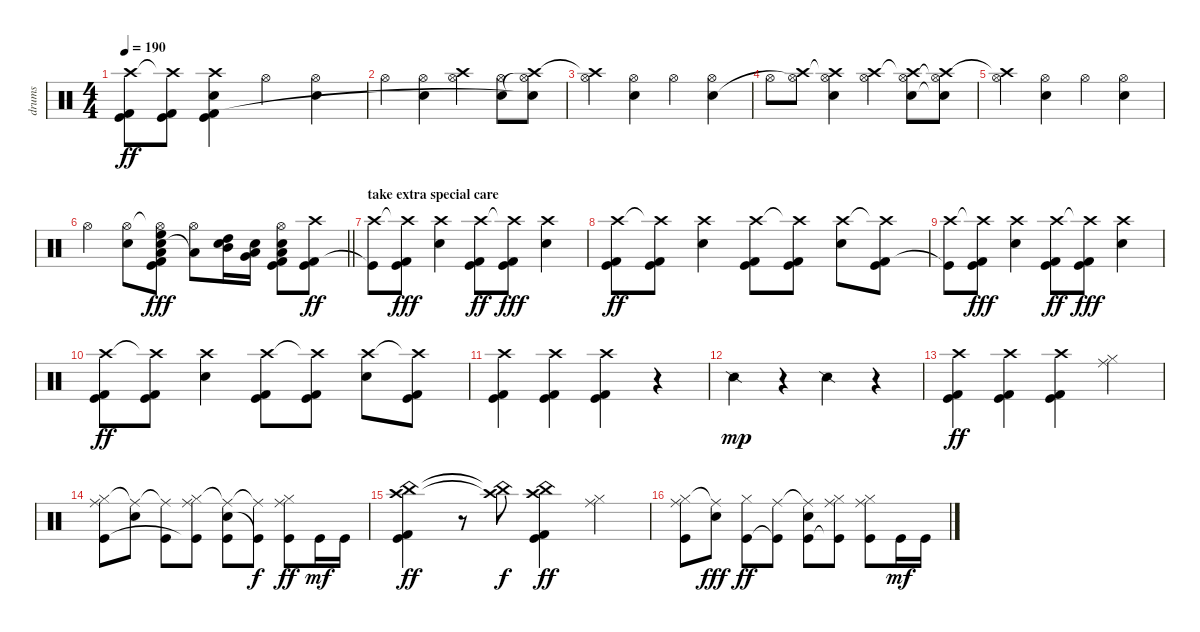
\track ("drums" "drums") {instrument percussion}
\staff {score}
\articulation defaults
\ts (4 4)
\tempo 190
\clef neutral
\ks c
("Crash high (hit)"{t} "Kick (hit) 2" "Kick (hit)").8{dy ff} ("Crash high (hit)"{t} "Kick (hit) 2" "Kick (hit)").8 ("Crash high (hit)" "Electric Snare (hit)" "Kick (hit) 2" "Kick (hit)").4 "Hi-Hat (open)".4 ("Hi-Hat (open)" "Electric Snare (hit)").4 |
"Hi-Hat (open)".4 ("Hi-Hat (open)" "Electric Snare (hit)").4 ("Crash high (hit)" "Hi-Hat (open)").4 ("Hi-Hat (open)" "Electric Snare (hit)").8 ("Crash high (hit)" "Hi-Hat (open)"{t} "Electric Snare (hit)"{t}).8 |
("Crash high (hit)"{t} "Hi-Hat (open)").4 ("Hi-Hat (open)" "Electric Snare (hit)").4 "Hi-Hat (open)".4 ("Hi-Hat (open)" "Electric Snare (hit)").4 |
"Hi-Hat (open)".8 ("Crash high (hit)" "Hi-Hat (open)"{t}).8 ("Crash high (hit)"{t} "Hi-Hat (open)" "Electric Snare (hit)").4 ("Crash high (hit)" "Hi-Hat (open)").4 ("Crash high (hit)"{t} "Hi-Hat (open)" "Electric Snare (hit)").8 ("Crash high (hit)" "Hi-Hat (open)"{t} "Electric Snare (hit)"{t}).8 |
("Crash high (hit)"{t} "Hi-Hat (open)").4 ("Hi-Hat (open)" "Electric Snare (hit)").4 "Hi-Hat (open)".4 ("Hi-Hat (open)" "Electric Snare (hit)").4 |
\barLineRight lightlight "Hi-Hat (open)".4
("Hi-Hat (open)" "Electric Snare (hit)").8 ("Hi-Hat (open)"{t} "Electric Snare (hit)" "Kick (hit) 2" "High Floor Tom (hit)" "Low Tom (hit)" "Kick (hit)").8{dy fff} ("Hi-Hat (open)" "Low Tom (hit)"{t}).8 ("Electric Snare (hit)" "High Tom (hit)" "Mid Tom (hit)").16 ("Electric Snare (hit)" "Very Low Tom (hit)" "Low Floor Tom (hit)").16 ("Electric Snare (hit)" "Hi-Hat (open)" "Kick (hit) 2" "Low Floor Tom (hit)" "Kick (hit)").8 ("Crash high (hit)" "Kick (hit) 2" "Kick (hit)").8{dy ff} |
\section ("" "take extra special care")
("Crash high (hit)" "Kick (hit)"{t}).8 ("Crash high (hit)"{t} "Kick (hit) 2" "Kick (hit)").8{dy fff} ("Crash high (hit)" "Electric Snare (hit)").4 ("Crash high (hit)" "Kick (hit) 2" "Kick (hit)").8{dy ff} ("Crash high (hit)"{t} "Kick (hit) 2" "Kick (hit)").8{dy fff} ("Crash high (hit)" "Electric Snare (hit)").4 |
("Crash high (hit)" "Kick (hit) 2" "Kick (hit)").8{dy ff} ("Crash high (hit)"{t} "Kick (hit) 2" "Kick (hit)").8 ("Crash high (hit)" "Electric Snare (hit)").4 ("Crash high (hit)" "Kick (hit) 2" "Kick (hit)").8 ("Crash high (hit)"{t} "Kick (hit) 2" "Kick (hit)").8 ("Crash high (hit)" "Electric Snare (hit)").8 ("Crash high (hit)"{t} "Kick (hit) 2" "Kick (hit)").8 |
("Crash high (hit)" "Kick (hit)"{t}).8 ("Crash high (hit)"{t} "Kick (hit) 2" "Kick (hit)").8{dy fff} ("Crash high (hit)" "Electric Snare (hit)").4 ("Crash high (hit)" "Kick (hit) 2" "Kick (hit)").8{dy ff} ("Crash high (hit)"{t} "Kick (hit) 2" "Kick (hit)").8{dy fff} ("Crash high (hit)" "Electric Snare (hit)").4 |
("Crash high (hit)" "Kick (hit) 2" "Kick (hit)").8{dy ff} ("Crash high (hit)"{t} "Kick (hit) 2" "Kick (hit)").8 ("Crash high (hit)" "Electric Snare (hit)").4 ("Crash high (hit)" "Kick (hit) 2" "Kick (hit)").8 ("Crash high (hit)"{t} "Kick (hit) 2" "Kick (hit)").8 ("Crash high (hit)" "Electric Snare (hit)").8 ("Crash high (hit)"{t} "Kick (hit) 2" "Kick (hit)").8 |
("Crash high (hit)" "Kick (hit) 2" "Kick (hit)").4 ("Crash high (hit)" "Kick (hit) 2" "Kick (hit)").4 ("Crash high (hit)" "Kick (hit) 2" "Kick (hit)").4 r.4 |
"Snare (side stick) 2".4{dy mp} r.4 "Snare (side stick) 2".4 r.4 |
("Crash high (hit)" "Kick (hit)" "Kick (hit) 2").4{dy ff} ("Crash high (hit)" "Kick (hit)" "Kick (hit) 2").4 ("Crash high (hit)" "Kick (hit)" "Kick (hit) 2").4 ("Hi-Hat (closed)" "Ride (middle)").4 |
("Hi-Hat (closed)" "Ride (middle)" "Kick (hit)").8 ("Ride (middle)"{t} "Electric Snare (hit)").8 ("Ride (middle)"{t} "Kick (hit)").8 ("Hi-Hat (closed)" "Ride (middle)" "Kick (hit)"{t}).8 ("Ride (middle)"{t} "Electric Snare (hit)" "Kick (hit)").8 ("Ride (middle)"{t} "Kick (hit)"{t}).8{dy f} ("Hi-Hat (closed)" "Ride (middle)" "Kick (hit)").8{dy ff} "Kick (hit)".16{dy mf} "Kick (hit)".16 |
("China (hit)" "Crash high (hit)" "Kick (hit) 2" "Kick (hit)").4{dy ff} r.8 ("China (hit)"{t} "Crash high (hit)"{t}).8{dy f} ("China (hit)" "Crash high (hit)" "Kick (hit) 2" "Kick (hit)").4{dy ff} ("Ride (middle)" "Hi-Hat (closed)").4 |
("Hi-Hat (closed)" "Ride (middle)" "Kick (hit)").8 ("Ride (middle)"{t} "Electric Snare (hit)").8{dy fff} ("Hi-Hat (closed)" "Kick (hit)").8{dy ff} ("Ride (middle)" "Kick (hit)"{t}).8 ("Ride (middle)"{t} "Electric Snare (hit)" "Kick (hit)").8 ("Hi-Hat (closed)" "Ride (middle)" "Kick (hit)"{t}).8 ("Hi-Hat (closed)" "Ride (middle)" "Kick (hit)").8 "Kick (hit)".16{dy mf} "Kick (hit)".16
